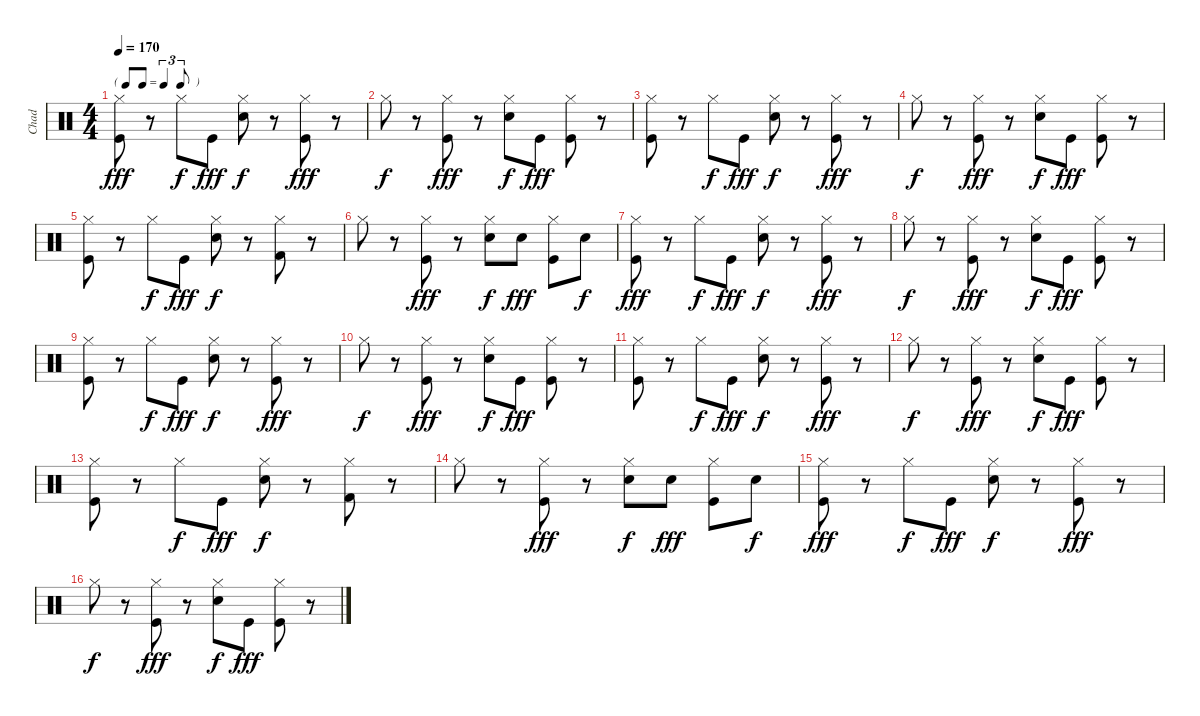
\track ("Chad" "Chad") {instrument percussion}
\staff {score}
\articulation defaults
\ts (4 4)
\tf triplet8th
\tempo 170
\clef neutral
\ks c
("Hi-Hat (closed)" "Kick (hit)").8{dy fff} r.8 "Hi-Hat (closed)".8{dy f} "Kick (hit)".8{dy fff} ("Hi-Hat (closed)" "Snare (hit) 2").8{dy f} r.8 ("Hi-Hat (closed)" "Kick (hit)").8{dy fff} r.8 |
"Hi-Hat (closed)".8{dy f} r.8 ("Hi-Hat (closed)" "Kick (hit)").8{dy fff} r.8 ("Hi-Hat (closed)" "Snare (hit) 2").8{dy f} "Kick (hit)".8{dy fff} ("Hi-Hat (closed)" "Kick (hit)").8 r.8 |
("Hi-Hat (closed)" "Kick (hit)").8 r.8 "Hi-Hat (closed)".8{dy f} "Kick (hit)".8{dy fff} ("Hi-Hat (closed)" "Snare (hit) 2").8{dy f} r.8 ("Hi-Hat (closed)" "Kick (hit)").8{dy fff} r.8 |
"Hi-Hat (closed)".8{dy f} r.8 ("Hi-Hat (closed)" "Kick (hit)").8{dy fff} r.8 ("Hi-Hat (closed)" "Snare (hit) 2").8{dy f} "Kick (hit)".8{dy fff} ("Hi-Hat (closed)" "Kick (hit)").8 r.8 |
("Hi-Hat (closed)" "Kick (hit)").8 r.8 "Hi-Hat (closed)".8{dy f} "Kick (hit)".8{dy fff} ("Hi-Hat (closed)" "Snare (hit) 2").8{dy f} r.8 ("Hi-Hat (closed)" "Kick (hit) 2").8 r.8 |
"Hi-Hat (closed)".8 r.8 ("Hi-Hat (closed)" "Kick (hit)").8{dy fff} r.8 ("Hi-Hat (closed)" "Snare (hit) 2").8{dy f} "Snare (hit) 2".8{dy fff} ("Hi-Hat (closed)" "Kick (hit)").8 "Snare (hit) 2".8{dy f} |
("Hi-Hat (closed)" "Kick (hit)").8{dy fff} r.8 "Hi-Hat (closed)".8{dy f} "Kick (hit)".8{dy fff} ("Hi-Hat (closed)" "Snare (hit) 2").8{dy f} r.8 ("Hi-Hat (closed)" "Kick (hit)").8{dy fff} r.8 |
"Hi-Hat (closed)".8{dy f} r.8 ("Hi-Hat (closed)" "Kick (hit)").8{dy fff} r.8 ("Hi-Hat (closed)" "Snare (hit) 2").8{dy f} "Kick (hit)".8{dy fff} ("Hi-Hat (closed)" "Kick (hit)").8 r.8 |
("Hi-Hat (closed)" "Kick (hit)").8 r.8 "Hi-Hat (closed)".8{dy f} "Kick (hit)".8{dy fff} ("Hi-Hat (closed)" "Snare (hit) 2").8{dy f} r.8 ("Hi-Hat (closed)" "Kick (hit)").8{dy fff} r.8 |
"Hi-Hat (closed)".8{dy f} r.8 ("Hi-Hat (closed)" "Kick (hit)").8{dy fff} r.8 ("Hi-Hat (closed)" "Snare (hit) 2").8{dy f} "Kick (hit)".8{dy fff} ("Hi-Hat (closed)" "Kick (hit)").8 r.8 |
("Hi-Hat (closed)" "Kick (hit)").8 r.8 "Hi-Hat (closed)".8{dy f} "Kick (hit)".8{dy fff} ("Hi-Hat (closed)" "Snare (hit) 2").8{dy f} r.8 ("Hi-Hat (closed)" "Kick (hit)").8{dy fff} r.8 |
"Hi-Hat (closed)".8{dy f} r.8 ("Hi-Hat (closed)" "Kick (hit)").8{dy fff} r.8 ("Hi-Hat (closed)" "Snare (hit) 2").8{dy f} "Kick (hit)".8{dy fff} ("Hi-Hat (closed)" "Kick (hit)").8 r.8 |
("Hi-Hat (closed)" "Kick (hit)").8 r.8 "Hi-Hat (closed)".8{dy f} "Kick (hit)".8{dy fff} ("Hi-Hat (closed)" "Snare (hit) 2").8{dy f} r.8 ("Hi-Hat (closed)" "Kick (hit) 2").8 r.8 |
"Hi-Hat (closed)".8 r.8 ("Hi-Hat (closed)" "Kick (hit)").8{dy fff} r.8 ("Hi-Hat (closed)" "Snare (hit) 2").8{dy f} "Snare (hit) 2".8{dy fff} ("Hi-Hat (closed)" "Kick (hit)").8 "Snare (hit) 2".8{dy f} |
("Hi-Hat (closed)" "Kick (hit)").8{dy fff} r.8 "Hi-Hat (closed)".8{dy f} "Kick (hit)".8{dy fff} ("Hi-Hat (closed)" "Snare (hit) 2").8{dy f} r.8 ("Hi-Hat (closed)" "Kick (hit)").8{dy fff} r.8 |
"Hi-Hat (closed)".8{dy f} r.8 ("Hi-Hat (closed)" "Kick (hit)").8{dy fff} r.8 ("Hi-Hat (closed)" "Snare (hit) 2").8{dy f} "Kick (hit)".8{dy fff} ("Hi-Hat (closed)" "Kick (hit)").8 r.8
